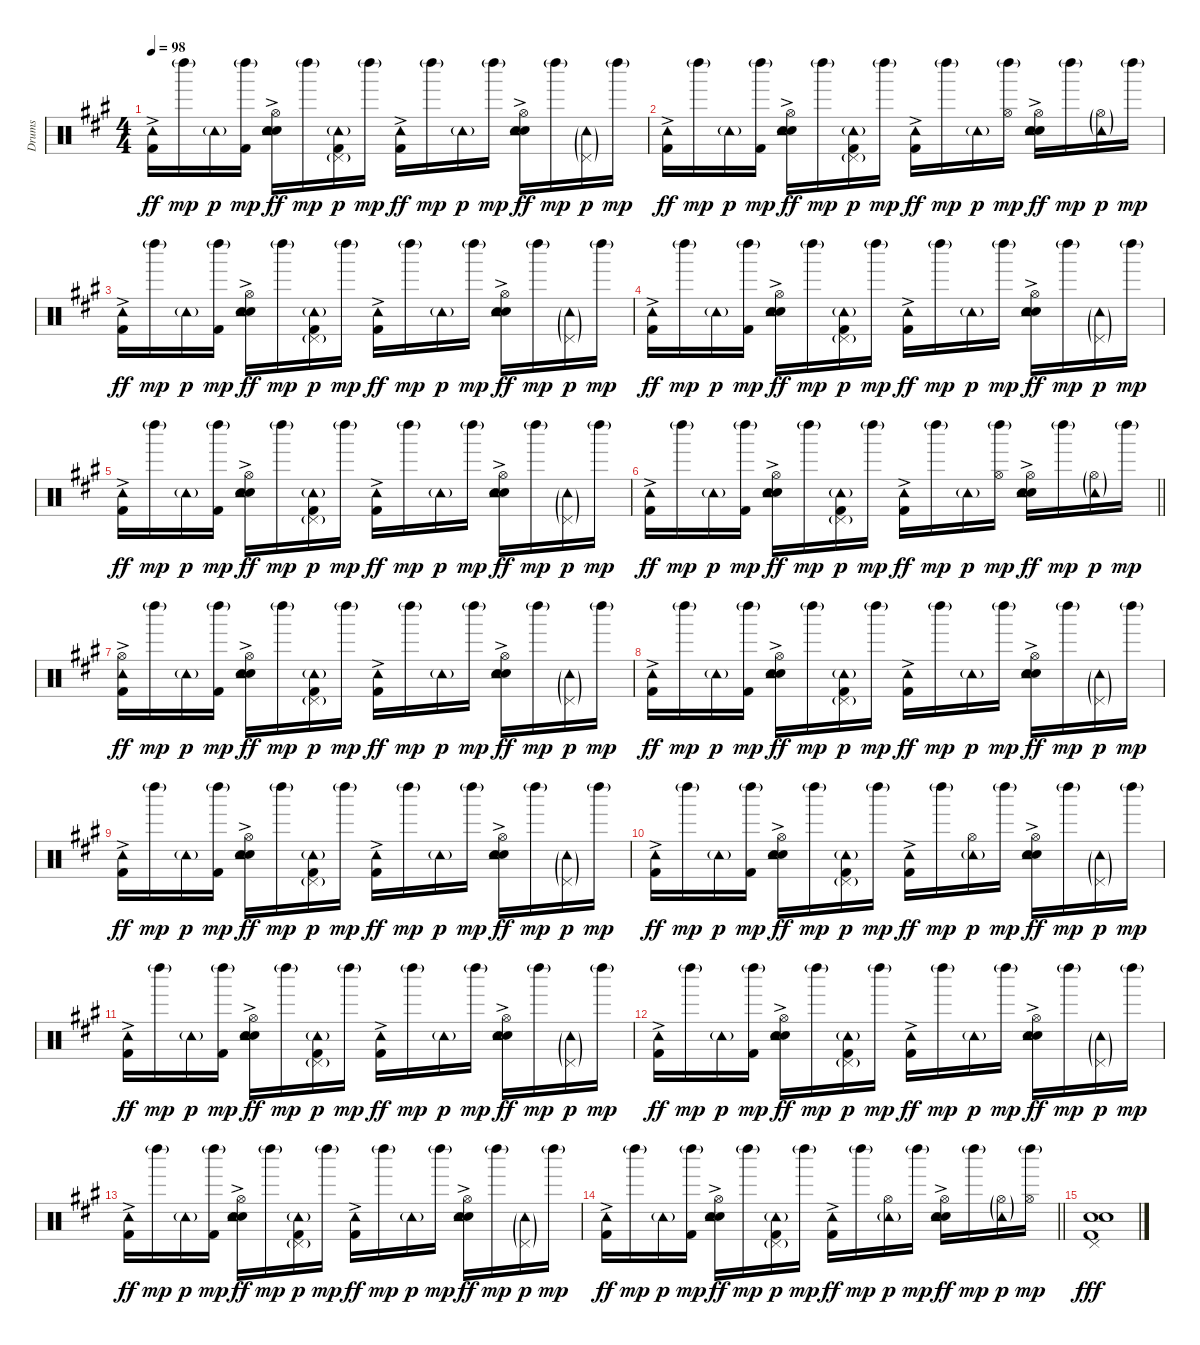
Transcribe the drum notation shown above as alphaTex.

\track ("Drums" "Drums") {instrument percussion}
\staff {score}
\articulation defaults
\ts (4 4)
\tempo 98
\clef neutral
\ks a
("Kick (hit) 2"{ac} "Tambourine (hit)").16{dy ff} "Left Maraca (hit)"{g}.16{dy mp} "Tambourine (hit)"{g}.16{dy p} ("Kick (hit) 2" "Left Maraca (hit)"{g}).16{dy mp} ("Snare (hit) 2"{ac} "Electric Snare (hit)" "Hi-Hat (open)" "Tambourine (hit)").16{dy ff} "Left Maraca (hit)"{g}.16{dy mp} ("Kick (hit) 2" "Pedal Hi-Hat (hit)"{g} "Tambourine (hit)"{g}).16{dy p} "Left Maraca (hit)"{g}.16{dy mp} ("Kick (hit) 2"{ac} "Tambourine (hit)").16{dy ff} "Left Maraca (hit)"{g}.16{dy mp} "Tambourine (hit)"{g}.16{dy p} "Left Maraca (hit)"{g}.16{dy mp} ("Snare (hit) 2"{ac} "Electric Snare (hit)" "Hi-Hat (open)" "Tambourine (hit)").16{dy ff} "Left Maraca (hit)"{g}.16{dy mp} ("Pedal Hi-Hat (hit)"{g} "Tambourine (hit)"{g}).16{dy p} "Left Maraca (hit)"{g}.16{dy mp} |
("Kick (hit) 2"{ac} "Tambourine (hit)").16{dy ff} "Left Maraca (hit)"{g}.16{dy mp} "Tambourine (hit)"{g}.16{dy p} ("Kick (hit) 2" "Left Maraca (hit)"{g}).16{dy mp} ("Snare (hit) 2"{ac} "Electric Snare (hit)" "Hi-Hat (open)" "Tambourine (hit)").16{dy ff} "Left Maraca (hit)"{g}.16{dy mp} ("Kick (hit) 2" "Pedal Hi-Hat (hit)"{g} "Tambourine (hit)"{g}).16{dy p} "Left Maraca (hit)"{g}.16{dy mp} ("Kick (hit) 2"{ac} "Tambourine (hit)").16{dy ff} "Left Maraca (hit)"{g}.16{dy mp} "Tambourine (hit)"{g}.16{dy p} ("Hi-Hat (open)" "Left Maraca (hit)"{g}).16{dy mp} ("Snare (hit) 2"{ac} "Electric Snare (hit)" "Hi-Hat (open)" "Tambourine (hit)").16{dy ff} "Left Maraca (hit)"{g}.16{dy mp} ("Hi-Hat (open)"{g} "Tambourine (hit)"{g}).16{dy p} "Left Maraca (hit)"{g}.16{dy mp} |
("Kick (hit) 2"{ac} "Tambourine (hit)").16{dy ff} "Left Maraca (hit)"{g}.16{dy mp} "Tambourine (hit)"{g}.16{dy p} ("Kick (hit) 2" "Left Maraca (hit)"{g}).16{dy mp} ("Snare (hit) 2"{ac} "Electric Snare (hit)" "Hi-Hat (open)" "Tambourine (hit)").16{dy ff} "Left Maraca (hit)"{g}.16{dy mp} ("Kick (hit) 2" "Pedal Hi-Hat (hit)"{g} "Tambourine (hit)"{g}).16{dy p} "Left Maraca (hit)"{g}.16{dy mp} ("Kick (hit) 2"{ac} "Tambourine (hit)").16{dy ff} "Left Maraca (hit)"{g}.16{dy mp} "Tambourine (hit)"{g}.16{dy p} "Left Maraca (hit)"{g}.16{dy mp} ("Snare (hit) 2"{ac} "Electric Snare (hit)" "Hi-Hat (open)" "Tambourine (hit)").16{dy ff} "Left Maraca (hit)"{g}.16{dy mp} ("Pedal Hi-Hat (hit)"{g} "Tambourine (hit)"{g}).16{dy p} "Left Maraca (hit)"{g}.16{dy mp} |
("Kick (hit) 2"{ac} "Tambourine (hit)").16{dy ff} "Left Maraca (hit)"{g}.16{dy mp} "Tambourine (hit)"{g}.16{dy p} ("Kick (hit) 2" "Left Maraca (hit)"{g}).16{dy mp} ("Snare (hit) 2"{ac} "Electric Snare (hit)" "Hi-Hat (open)" "Tambourine (hit)").16{dy ff} "Left Maraca (hit)"{g}.16{dy mp} ("Kick (hit) 2" "Pedal Hi-Hat (hit)"{g} "Tambourine (hit)"{g}).16{dy p} "Left Maraca (hit)"{g}.16{dy mp} ("Kick (hit) 2"{ac} "Tambourine (hit)").16{dy ff} "Left Maraca (hit)"{g}.16{dy mp} "Tambourine (hit)"{g}.16{dy p} "Left Maraca (hit)"{g}.16{dy mp} ("Snare (hit) 2"{ac} "Electric Snare (hit)" "Hi-Hat (open)" "Tambourine (hit)").16{dy ff} "Left Maraca (hit)"{g}.16{dy mp} ("Pedal Hi-Hat (hit)"{g} "Tambourine (hit)"{g}).16{dy p} "Left Maraca (hit)"{g}.16{dy mp} |
("Kick (hit) 2"{ac} "Tambourine (hit)").16{dy ff} "Left Maraca (hit)"{g}.16{dy mp} "Tambourine (hit)"{g}.16{dy p} ("Kick (hit) 2" "Left Maraca (hit)"{g}).16{dy mp} ("Snare (hit) 2"{ac} "Electric Snare (hit)" "Hi-Hat (open)" "Tambourine (hit)").16{dy ff} "Left Maraca (hit)"{g}.16{dy mp} ("Kick (hit) 2" "Pedal Hi-Hat (hit)"{g} "Tambourine (hit)"{g}).16{dy p} "Left Maraca (hit)"{g}.16{dy mp} ("Kick (hit) 2"{ac} "Tambourine (hit)").16{dy ff} "Left Maraca (hit)"{g}.16{dy mp} "Tambourine (hit)"{g}.16{dy p} "Left Maraca (hit)"{g}.16{dy mp} ("Snare (hit) 2"{ac} "Electric Snare (hit)" "Hi-Hat (open)" "Tambourine (hit)").16{dy ff} "Left Maraca (hit)"{g}.16{dy mp} ("Pedal Hi-Hat (hit)"{g} "Tambourine (hit)"{g}).16{dy p} "Left Maraca (hit)"{g}.16{dy mp} |
\barLineRight lightlight
("Kick (hit) 2"{ac} "Tambourine (hit)").16{dy ff} "Left Maraca (hit)"{g}.16{dy mp} "Tambourine (hit)"{g}.16{dy p} ("Kick (hit) 2" "Left Maraca (hit)"{g}).16{dy mp} ("Snare (hit) 2"{ac} "Electric Snare (hit)" "Hi-Hat (open)" "Tambourine (hit)").16{dy ff} "Left Maraca (hit)"{g}.16{dy mp} ("Kick (hit) 2" "Pedal Hi-Hat (hit)"{g} "Tambourine (hit)"{g}).16{dy p} "Left Maraca (hit)"{g}.16{dy mp} ("Kick (hit) 2"{ac} "Tambourine (hit)").16{dy ff} "Left Maraca (hit)"{g}.16{dy mp} "Tambourine (hit)"{g}.16{dy p} ("Hi-Hat (open)" "Left Maraca (hit)"{g}).16{dy mp} ("Snare (hit) 2"{ac} "Electric Snare (hit)" "Hi-Hat (open)" "Tambourine (hit)").16{dy ff} "Left Maraca (hit)"{g}.16{dy mp} ("Hi-Hat (open)"{g} "Tambourine (hit)"{g}).16{dy p} "Left Maraca (hit)"{g}.16{dy mp} |
("Kick (hit) 2"{ac} "Hi-Hat (open)" "Tambourine (hit)").16{dy ff} "Left Maraca (hit)"{g}.16{dy mp} "Tambourine (hit)"{g}.16{dy p} ("Kick (hit) 2" "Left Maraca (hit)"{g}).16{dy mp} ("Snare (hit) 2"{ac} "Electric Snare (hit)" "Hi-Hat (open)" "Tambourine (hit)").16{dy ff} "Left Maraca (hit)"{g}.16{dy mp} ("Kick (hit) 2" "Pedal Hi-Hat (hit)"{g} "Tambourine (hit)"{g}).16{dy p} "Left Maraca (hit)"{g}.16{dy mp} ("Kick (hit) 2"{ac} "Tambourine (hit)").16{dy ff} "Left Maraca (hit)"{g}.16{dy mp} "Tambourine (hit)"{g}.16{dy p} "Left Maraca (hit)"{g}.16{dy mp} ("Snare (hit) 2"{ac} "Electric Snare (hit)" "Hi-Hat (open)" "Tambourine (hit)").16{dy ff} "Left Maraca (hit)"{g}.16{dy mp} ("Pedal Hi-Hat (hit)"{g} "Tambourine (hit)"{g}).16{dy p} "Left Maraca (hit)"{g}.16{dy mp} |
("Kick (hit) 2"{ac} "Tambourine (hit)").16{dy ff} "Left Maraca (hit)"{g}.16{dy mp} "Tambourine (hit)"{g}.16{dy p} ("Kick (hit) 2" "Left Maraca (hit)"{g}).16{dy mp} ("Snare (hit) 2"{ac} "Electric Snare (hit)" "Hi-Hat (open)" "Tambourine (hit)").16{dy ff} "Left Maraca (hit)"{g}.16{dy mp} ("Kick (hit) 2" "Pedal Hi-Hat (hit)"{g} "Tambourine (hit)"{g}).16{dy p} "Left Maraca (hit)"{g}.16{dy mp} ("Kick (hit) 2"{ac} "Tambourine (hit)").16{dy ff} "Left Maraca (hit)"{g}.16{dy mp} "Tambourine (hit)"{g}.16{dy p} "Left Maraca (hit)"{g}.16{dy mp} ("Snare (hit) 2"{ac} "Electric Snare (hit)" "Hi-Hat (open)" "Tambourine (hit)").16{dy ff} "Left Maraca (hit)"{g}.16{dy mp} ("Pedal Hi-Hat (hit)"{g} "Tambourine (hit)"{g}).16{dy p} "Left Maraca (hit)"{g}.16{dy mp} |
("Kick (hit) 2"{ac} "Tambourine (hit)").16{dy ff} "Left Maraca (hit)"{g}.16{dy mp} "Tambourine (hit)"{g}.16{dy p} ("Kick (hit) 2" "Left Maraca (hit)"{g}).16{dy mp} ("Snare (hit) 2"{ac} "Electric Snare (hit)" "Hi-Hat (open)" "Tambourine (hit)").16{dy ff} "Left Maraca (hit)"{g}.16{dy mp} ("Kick (hit) 2" "Pedal Hi-Hat (hit)"{g} "Tambourine (hit)"{g}).16{dy p} "Left Maraca (hit)"{g}.16{dy mp} ("Kick (hit) 2"{ac} "Tambourine (hit)").16{dy ff} "Left Maraca (hit)"{g}.16{dy mp} "Tambourine (hit)"{g}.16{dy p} "Left Maraca (hit)"{g}.16{dy mp} ("Snare (hit) 2"{ac} "Electric Snare (hit)" "Hi-Hat (open)" "Tambourine (hit)").16{dy ff} "Left Maraca (hit)"{g}.16{dy mp} ("Pedal Hi-Hat (hit)"{g} "Tambourine (hit)"{g}).16{dy p} "Left Maraca (hit)"{g}.16{dy mp} |
("Kick (hit) 2"{ac} "Tambourine (hit)").16{dy ff} "Left Maraca (hit)"{g}.16{dy mp} "Tambourine (hit)"{g}.16{dy p} ("Kick (hit) 2" "Left Maraca (hit)"{g}).16{dy mp} ("Snare (hit) 2"{ac} "Electric Snare (hit)" "Hi-Hat (open)" "Tambourine (hit)").16{dy ff} "Left Maraca (hit)"{g}.16{dy mp} ("Kick (hit) 2" "Pedal Hi-Hat (hit)"{g} "Tambourine (hit)"{g}).16{dy p} "Left Maraca (hit)"{g}.16{dy mp} ("Kick (hit) 2"{ac} "Tambourine (hit)").16{dy ff} "Left Maraca (hit)"{g}.16{dy mp} ("Hi-Hat (open)" "Tambourine (hit)"{g}).16{dy p} "Left Maraca (hit)"{g}.16{dy mp} ("Snare (hit) 2"{ac} "Electric Snare (hit)" "Hi-Hat (open)" "Tambourine (hit)").16{dy ff} "Left Maraca (hit)"{g}.16{dy mp} ("Pedal Hi-Hat (hit)"{g} "Tambourine (hit)"{g}).16{dy p} "Left Maraca (hit)"{g}.16{dy mp} |
("Kick (hit) 2"{ac} "Tambourine (hit)").16{dy ff} "Left Maraca (hit)"{g}.16{dy mp} "Tambourine (hit)"{g}.16{dy p} ("Kick (hit) 2" "Left Maraca (hit)"{g}).16{dy mp} ("Snare (hit) 2"{ac} "Electric Snare (hit)" "Hi-Hat (open)" "Tambourine (hit)").16{dy ff} "Left Maraca (hit)"{g}.16{dy mp} ("Kick (hit) 2" "Pedal Hi-Hat (hit)"{g} "Tambourine (hit)"{g}).16{dy p} "Left Maraca (hit)"{g}.16{dy mp} ("Kick (hit) 2"{ac} "Tambourine (hit)").16{dy ff} "Left Maraca (hit)"{g}.16{dy mp} "Tambourine (hit)"{g}.16{dy p} "Left Maraca (hit)"{g}.16{dy mp} ("Snare (hit) 2"{ac} "Electric Snare (hit)" "Hi-Hat (open)" "Tambourine (hit)").16{dy ff} "Left Maraca (hit)"{g}.16{dy mp} ("Pedal Hi-Hat (hit)"{g} "Tambourine (hit)"{g}).16{dy p} "Left Maraca (hit)"{g}.16{dy mp} |
("Kick (hit) 2"{ac} "Tambourine (hit)").16{dy ff} "Left Maraca (hit)"{g}.16{dy mp} "Tambourine (hit)"{g}.16{dy p} ("Kick (hit) 2" "Left Maraca (hit)"{g}).16{dy mp} ("Snare (hit) 2"{ac} "Electric Snare (hit)" "Hi-Hat (open)" "Tambourine (hit)").16{dy ff} "Left Maraca (hit)"{g}.16{dy mp} ("Kick (hit) 2" "Pedal Hi-Hat (hit)"{g} "Tambourine (hit)"{g}).16{dy p} "Left Maraca (hit)"{g}.16{dy mp} ("Kick (hit) 2"{ac} "Tambourine (hit)").16{dy ff} "Left Maraca (hit)"{g}.16{dy mp} "Tambourine (hit)"{g}.16{dy p} "Left Maraca (hit)"{g}.16{dy mp} ("Snare (hit) 2"{ac} "Electric Snare (hit)" "Hi-Hat (open)" "Tambourine (hit)").16{dy ff} "Left Maraca (hit)"{g}.16{dy mp} ("Pedal Hi-Hat (hit)"{g} "Tambourine (hit)"{g}).16{dy p} "Left Maraca (hit)"{g}.16{dy mp} |
("Kick (hit) 2"{ac} "Tambourine (hit)").16{dy ff} "Left Maraca (hit)"{g}.16{dy mp} "Tambourine (hit)"{g}.16{dy p} ("Kick (hit) 2" "Left Maraca (hit)"{g}).16{dy mp} ("Snare (hit) 2"{ac} "Electric Snare (hit)" "Hi-Hat (open)" "Tambourine (hit)").16{dy ff} "Left Maraca (hit)"{g}.16{dy mp} ("Kick (hit) 2" "Pedal Hi-Hat (hit)"{g} "Tambourine (hit)"{g}).16{dy p} "Left Maraca (hit)"{g}.16{dy mp} ("Kick (hit) 2"{ac} "Tambourine (hit)").16{dy ff} "Left Maraca (hit)"{g}.16{dy mp} "Tambourine (hit)"{g}.16{dy p} "Left Maraca (hit)"{g}.16{dy mp} ("Snare (hit) 2"{ac} "Electric Snare (hit)" "Hi-Hat (open)" "Tambourine (hit)").16{dy ff} "Left Maraca (hit)"{g}.16{dy mp} ("Pedal Hi-Hat (hit)"{g} "Tambourine (hit)"{g}).16{dy p} "Left Maraca (hit)"{g}.16{dy mp} |
\barLineRight lightlight
("Kick (hit) 2"{ac} "Tambourine (hit)").16{dy ff} "Left Maraca (hit)"{g}.16{dy mp} "Tambourine (hit)"{g}.16{dy p} ("Kick (hit) 2" "Left Maraca (hit)"{g}).16{dy mp} ("Snare (hit) 2"{ac} "Electric Snare (hit)" "Hi-Hat (open)" "Tambourine (hit)").16{dy ff} "Left Maraca (hit)"{g}.16{dy mp} ("Kick (hit) 2" "Pedal Hi-Hat (hit)"{g} "Tambourine (hit)"{g}).16{dy p} "Left Maraca (hit)"{g}.16{dy mp} ("Kick (hit) 2"{ac} "Tambourine (hit)").16{dy ff} "Left Maraca (hit)"{g}.16{dy mp} ("Hi-Hat (open)" "Tambourine (hit)"{g}).16{dy p} "Left Maraca (hit)"{g}.16{dy mp} ("Snare (hit) 2"{ac} "Electric Snare (hit)" "Hi-Hat (open)" "Tambourine (hit)").16{dy ff} "Left Maraca (hit)"{g}.16{dy mp} ("Hi-Hat (open)"{g} "Tambourine (hit)"{g}).16{dy p} ("Hi-Hat (open)" "Left Maraca (hit)"{g}).16{dy mp} |
("Kick (hit) 2" "Snare (hit) 2" "Electric Snare (hit)" "Pedal Hi-Hat (hit)").1{dy fff}
